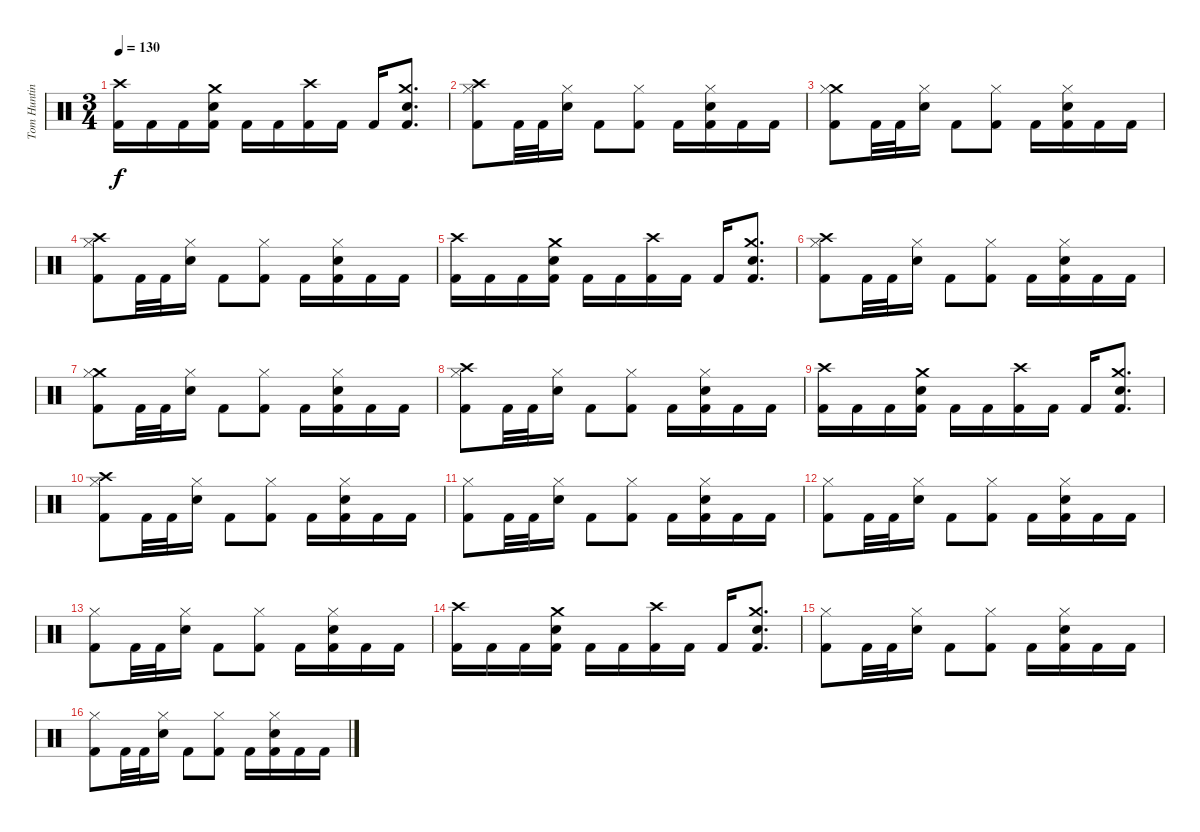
\track ("Tom Hunting" "Tom Huntin") {instrument percussion}
\staff {score}
\articulation defaults
\ts (3 4)
\tempo 130
\clef neutral
\ks c
("Crash high (hit)" "Kick (hit) 2").16{dy f} "Kick (hit) 2".16 "Kick (hit) 2".16 ("Crash medium (hit)" "Electric Snare (hit)" "Kick (hit) 2").16 "Kick (hit) 2".16 "Kick (hit) 2".16 ("Crash high (hit)" "Kick (hit) 2").16 "Kick (hit) 2".16 "Kick (hit) 2".16 ("Crash medium (hit)" "Electric Snare (hit)" "Kick (hit) 2").8{d} |
("Crash high (hit)" "Hi-Hat (closed)" "Kick (hit) 2").8 "Kick (hit) 2".32 "Kick (hit) 2".32 ("Hi-Hat (closed)" "Electric Snare (hit)").16 "Kick (hit) 2".8 ("Hi-Hat (closed)" "Kick (hit) 2").8 "Kick (hit) 2".16 ("Hi-Hat (closed)" "Electric Snare (hit)" "Kick (hit) 2").16 "Kick (hit) 2".16 "Kick (hit) 2".16 |
("Crash medium (hit)" "Hi-Hat (closed)" "Kick (hit) 2").8 "Kick (hit) 2".32 "Kick (hit) 2".32 ("Hi-Hat (closed)" "Electric Snare (hit)").16 "Kick (hit) 2".8 ("Hi-Hat (closed)" "Kick (hit) 2").8 "Kick (hit) 2".16 ("Hi-Hat (closed)" "Electric Snare (hit)" "Kick (hit) 2").16 "Kick (hit) 2".16 "Kick (hit) 2".16 |
("Crash high (hit)" "Hi-Hat (closed)" "Kick (hit) 2").8 "Kick (hit) 2".32 "Kick (hit) 2".32 ("Hi-Hat (closed)" "Electric Snare (hit)").16 "Kick (hit) 2".8 ("Hi-Hat (closed)" "Kick (hit) 2").8 "Kick (hit) 2".16 ("Hi-Hat (closed)" "Electric Snare (hit)" "Kick (hit) 2").16 "Kick (hit) 2".16 "Kick (hit) 2".16 |
("Crash high (hit)" "Kick (hit) 2").16 "Kick (hit) 2".16 "Kick (hit) 2".16 ("Crash medium (hit)" "Electric Snare (hit)" "Kick (hit) 2").16 "Kick (hit) 2".16 "Kick (hit) 2".16 ("Crash high (hit)" "Kick (hit) 2").16 "Kick (hit) 2".16 "Kick (hit) 2".16 ("Crash medium (hit)" "Electric Snare (hit)" "Kick (hit) 2").8{d} |
("Crash high (hit)" "Hi-Hat (closed)" "Kick (hit) 2").8 "Kick (hit) 2".32 "Kick (hit) 2".32 ("Hi-Hat (closed)" "Electric Snare (hit)").16 "Kick (hit) 2".8 ("Hi-Hat (closed)" "Kick (hit) 2").8 "Kick (hit) 2".16 ("Hi-Hat (closed)" "Electric Snare (hit)" "Kick (hit) 2").16 "Kick (hit) 2".16 "Kick (hit) 2".16 |
("Crash medium (hit)" "Hi-Hat (closed)" "Kick (hit) 2").8 "Kick (hit) 2".32 "Kick (hit) 2".32 ("Hi-Hat (closed)" "Electric Snare (hit)").16 "Kick (hit) 2".8 ("Hi-Hat (closed)" "Kick (hit) 2").8 "Kick (hit) 2".16 ("Hi-Hat (closed)" "Electric Snare (hit)" "Kick (hit) 2").16 "Kick (hit) 2".16 "Kick (hit) 2".16 |
("Crash high (hit)" "Hi-Hat (closed)" "Kick (hit) 2").8 "Kick (hit) 2".32 "Kick (hit) 2".32 ("Hi-Hat (closed)" "Electric Snare (hit)").16 "Kick (hit) 2".8 ("Hi-Hat (closed)" "Kick (hit) 2").8 "Kick (hit) 2".16 ("Hi-Hat (closed)" "Electric Snare (hit)" "Kick (hit) 2").16 "Kick (hit) 2".16 "Kick (hit) 2".16 |
("Crash high (hit)" "Kick (hit) 2").16 "Kick (hit) 2".16 "Kick (hit) 2".16 ("Crash medium (hit)" "Electric Snare (hit)" "Kick (hit) 2").16 "Kick (hit) 2".16 "Kick (hit) 2".16 ("Crash high (hit)" "Kick (hit) 2").16 "Kick (hit) 2".16 "Kick (hit) 2".16 ("Crash medium (hit)" "Electric Snare (hit)" "Kick (hit) 2").8{d} |
("Crash high (hit)" "Hi-Hat (closed)" "Kick (hit) 2").8 "Kick (hit) 2".32 "Kick (hit) 2".32 ("Hi-Hat (closed)" "Electric Snare (hit)").16 "Kick (hit) 2".8 ("Hi-Hat (closed)" "Kick (hit) 2").8 "Kick (hit) 2".16 ("Hi-Hat (closed)" "Electric Snare (hit)" "Kick (hit) 2").16 "Kick (hit) 2".16 "Kick (hit) 2".16 |
("Hi-Hat (closed)" "Kick (hit) 2").8 "Kick (hit) 2".32 "Kick (hit) 2".32 ("Hi-Hat (closed)" "Electric Snare (hit)").16 "Kick (hit) 2".8 ("Hi-Hat (closed)" "Kick (hit) 2").8 "Kick (hit) 2".16 ("Hi-Hat (closed)" "Electric Snare (hit)" "Kick (hit) 2").16 "Kick (hit) 2".16 "Kick (hit) 2".16 |
("Hi-Hat (closed)" "Kick (hit) 2").8 "Kick (hit) 2".32 "Kick (hit) 2".32 ("Hi-Hat (closed)" "Electric Snare (hit)").16 "Kick (hit) 2".8 ("Hi-Hat (closed)" "Kick (hit) 2").8 "Kick (hit) 2".16 ("Hi-Hat (closed)" "Electric Snare (hit)" "Kick (hit) 2").16 "Kick (hit) 2".16 "Kick (hit) 2".16 |
("Hi-Hat (closed)" "Kick (hit) 2").8 "Kick (hit) 2".32 "Kick (hit) 2".32 ("Hi-Hat (closed)" "Electric Snare (hit)").16 "Kick (hit) 2".8 ("Hi-Hat (closed)" "Kick (hit) 2").8 "Kick (hit) 2".16 ("Hi-Hat (closed)" "Electric Snare (hit)" "Kick (hit) 2").16 "Kick (hit) 2".16 "Kick (hit) 2".16 |
("Crash high (hit)" "Kick (hit) 2").16 "Kick (hit) 2".16 "Kick (hit) 2".16 ("Crash medium (hit)" "Electric Snare (hit)" "Kick (hit) 2").16 "Kick (hit) 2".16 "Kick (hit) 2".16 ("Crash high (hit)" "Kick (hit) 2").16 "Kick (hit) 2".16 "Kick (hit) 2".16 ("Crash medium (hit)" "Electric Snare (hit)" "Kick (hit) 2").8{d} |
("Hi-Hat (closed)" "Kick (hit) 2").8 "Kick (hit) 2".32 "Kick (hit) 2".32 ("Hi-Hat (closed)" "Electric Snare (hit)").16 "Kick (hit) 2".8 ("Hi-Hat (closed)" "Kick (hit) 2").8 "Kick (hit) 2".16 ("Hi-Hat (closed)" "Electric Snare (hit)" "Kick (hit) 2").16 "Kick (hit) 2".16 "Kick (hit) 2".16 |
("Hi-Hat (closed)" "Kick (hit) 2").8 "Kick (hit) 2".32 "Kick (hit) 2".32 ("Hi-Hat (closed)" "Electric Snare (hit)").16 "Kick (hit) 2".8 ("Hi-Hat (closed)" "Kick (hit) 2").8 "Kick (hit) 2".16 ("Hi-Hat (closed)" "Electric Snare (hit)" "Kick (hit) 2").16 "Kick (hit) 2".16 "Kick (hit) 2".16
